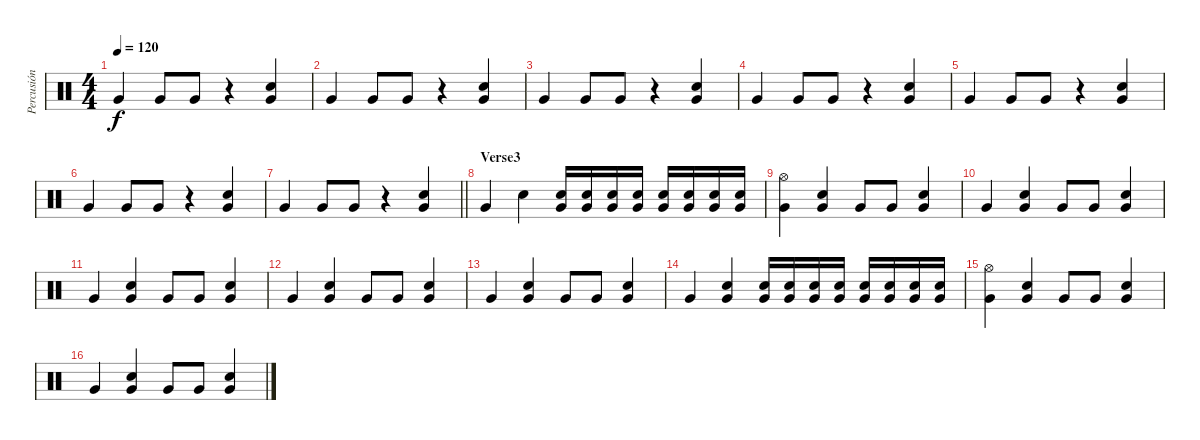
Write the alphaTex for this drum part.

\track ("Percusión" "Percusión") {instrument percussion}
\staff {score}
\articulation defaults
\ts (4 4)
\tempo 120
\clef neutral
\ks c "Very Low Tom (hit)".4{dy f} "Very Low Tom (hit)".8 "Very Low Tom (hit)".8
r.4 ("Very Low Tom (hit)" "Electric Snare (hit)").4 |
"Very Low Tom (hit)".4 "Very Low Tom (hit)".8 "Very Low Tom (hit)".8 r.4 ("Very Low Tom (hit)" "Electric Snare (hit)").4 |
"Very Low Tom (hit)".4 "Very Low Tom (hit)".8 "Very Low Tom (hit)".8 r.4 ("Very Low Tom (hit)" "Electric Snare (hit)").4 |
"Very Low Tom (hit)".4 "Very Low Tom (hit)".8 "Very Low Tom (hit)".8 r.4 ("Very Low Tom (hit)" "Electric Snare (hit)").4 |
"Very Low Tom (hit)".4 "Very Low Tom (hit)".8 "Very Low Tom (hit)".8 r.4 ("Very Low Tom (hit)" "Electric Snare (hit)").4 |
"Very Low Tom (hit)".4 "Very Low Tom (hit)".8 "Very Low Tom (hit)".8 r.4 ("Very Low Tom (hit)" "Electric Snare (hit)").4 |
\barLineRight lightlight "Very Low Tom (hit)".4 "Very Low Tom (hit)".8 "Very Low Tom (hit)".8
r.4 ("Very Low Tom (hit)" "Electric Snare (hit)").4 |
\section ("" "Verse3")
"Very Low Tom (hit)".4 "Electric Snare (hit)".4 ("Electric Snare (hit)" "Very Low Tom (hit)").16 ("Electric Snare (hit)" "Very Low Tom (hit)").16 ("Electric Snare (hit)" "Very Low Tom (hit)").16 ("Electric Snare (hit)" "Very Low Tom (hit)").16 ("Electric Snare (hit)" "Very Low Tom (hit)").16 ("Electric Snare (hit)" "Very Low Tom (hit)").16 ("Electric Snare (hit)" "Very Low Tom (hit)").16 ("Electric Snare (hit)" "Very Low Tom (hit)").16 |
("Very Low Tom (hit)" "Hi-Hat (open)").4 ("Electric Snare (hit)" "Very Low Tom (hit)").4 "Very Low Tom (hit)".8 "Very Low Tom (hit)".8 ("Electric Snare (hit)" "Very Low Tom (hit)").4 |
"Very Low Tom (hit)".4 ("Electric Snare (hit)" "Very Low Tom (hit)").4 "Very Low Tom (hit)".8 "Very Low Tom (hit)".8 ("Electric Snare (hit)" "Very Low Tom (hit)").4 |
"Very Low Tom (hit)".4 ("Electric Snare (hit)" "Very Low Tom (hit)").4 "Very Low Tom (hit)".8 "Very Low Tom (hit)".8 ("Electric Snare (hit)" "Very Low Tom (hit)").4 |
"Very Low Tom (hit)".4 ("Electric Snare (hit)" "Very Low Tom (hit)").4 "Very Low Tom (hit)".8 "Very Low Tom (hit)".8 ("Electric Snare (hit)" "Very Low Tom (hit)").4 |
"Very Low Tom (hit)".4 ("Electric Snare (hit)" "Very Low Tom (hit)").4 "Very Low Tom (hit)".8 "Very Low Tom (hit)".8 ("Electric Snare (hit)" "Very Low Tom (hit)").4 |
"Very Low Tom (hit)".4 ("Electric Snare (hit)" "Very Low Tom (hit)").4 ("Electric Snare (hit)" "Very Low Tom (hit)").16 ("Electric Snare (hit)" "Very Low Tom (hit)").16 ("Electric Snare (hit)" "Very Low Tom (hit)").16 ("Electric Snare (hit)" "Very Low Tom (hit)").16 ("Electric Snare (hit)" "Very Low Tom (hit)").16 ("Electric Snare (hit)" "Very Low Tom (hit)").16 ("Electric Snare (hit)" "Very Low Tom (hit)").16 ("Electric Snare (hit)" "Very Low Tom (hit)").16 |
("Very Low Tom (hit)" "Hi-Hat (open)").4 ("Electric Snare (hit)" "Very Low Tom (hit)").4 "Very Low Tom (hit)".8 "Very Low Tom (hit)".8 ("Electric Snare (hit)" "Very Low Tom (hit)").4 |
"Very Low Tom (hit)".4 ("Electric Snare (hit)" "Very Low Tom (hit)").4 "Very Low Tom (hit)".8 "Very Low Tom (hit)".8 ("Electric Snare (hit)" "Very Low Tom (hit)").4
